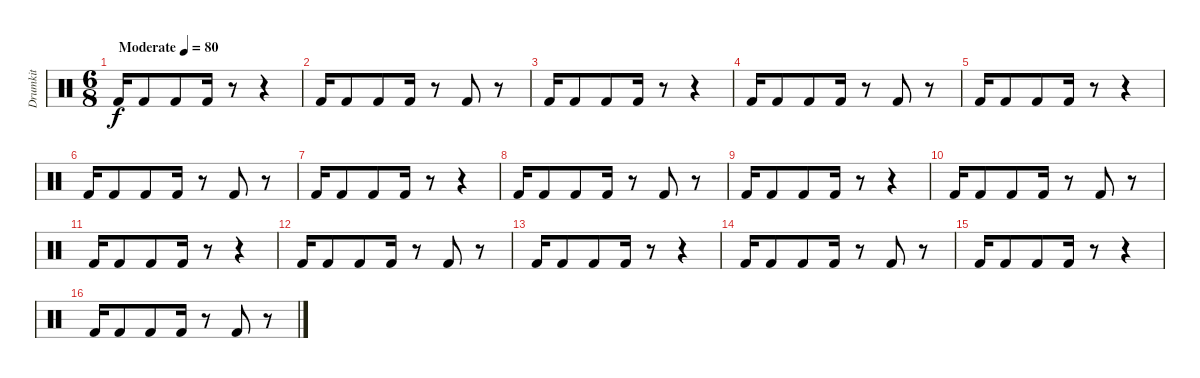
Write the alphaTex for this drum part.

\track ("Drumkit" "Drumkit") {instrument percussion}
\staff {score}
\articulation defaults
\ts (6 8)
\tempo (80 "Moderate")
\clef neutral
\ks c "Kick (hit) 2".16{dy f} "Kick (hit) 2".8 "Kick (hit) 2".8 "Kick (hit) 2".16
r.8 r.4 |
"Kick (hit) 2".16 "Kick (hit) 2".8 "Kick (hit) 2".8 "Kick (hit) 2".16 r.8 "Kick (hit) 2".8 r.8 |
"Kick (hit) 2".16 "Kick (hit) 2".8 "Kick (hit) 2".8 "Kick (hit) 2".16 r.8 r.4 |
"Kick (hit) 2".16 "Kick (hit) 2".8 "Kick (hit) 2".8 "Kick (hit) 2".16 r.8 "Kick (hit) 2".8 r.8 |
"Kick (hit) 2".16 "Kick (hit) 2".8 "Kick (hit) 2".8 "Kick (hit) 2".16 r.8 r.4 |
"Kick (hit) 2".16 "Kick (hit) 2".8 "Kick (hit) 2".8 "Kick (hit) 2".16 r.8 "Kick (hit) 2".8 r.8 |
"Kick (hit) 2".16 "Kick (hit) 2".8 "Kick (hit) 2".8 "Kick (hit) 2".16 r.8 r.4 |
"Kick (hit) 2".16 "Kick (hit) 2".8 "Kick (hit) 2".8 "Kick (hit) 2".16 r.8 "Kick (hit) 2".8 r.8 |
"Kick (hit) 2".16 "Kick (hit) 2".8 "Kick (hit) 2".8 "Kick (hit) 2".16 r.8 r.4 |
"Kick (hit) 2".16 "Kick (hit) 2".8 "Kick (hit) 2".8 "Kick (hit) 2".16 r.8 "Kick (hit) 2".8 r.8 |
"Kick (hit) 2".16 "Kick (hit) 2".8 "Kick (hit) 2".8 "Kick (hit) 2".16 r.8 r.4 |
"Kick (hit) 2".16 "Kick (hit) 2".8 "Kick (hit) 2".8 "Kick (hit) 2".16 r.8 "Kick (hit) 2".8 r.8 |
"Kick (hit) 2".16 "Kick (hit) 2".8 "Kick (hit) 2".8 "Kick (hit) 2".16 r.8 r.4 |
"Kick (hit) 2".16 "Kick (hit) 2".8 "Kick (hit) 2".8 "Kick (hit) 2".16 r.8 "Kick (hit) 2".8 r.8 |
"Kick (hit) 2".16 "Kick (hit) 2".8 "Kick (hit) 2".8 "Kick (hit) 2".16 r.8 r.4 |
"Kick (hit) 2".16 "Kick (hit) 2".8 "Kick (hit) 2".8 "Kick (hit) 2".16 r.8 "Kick (hit) 2".8 r.8
